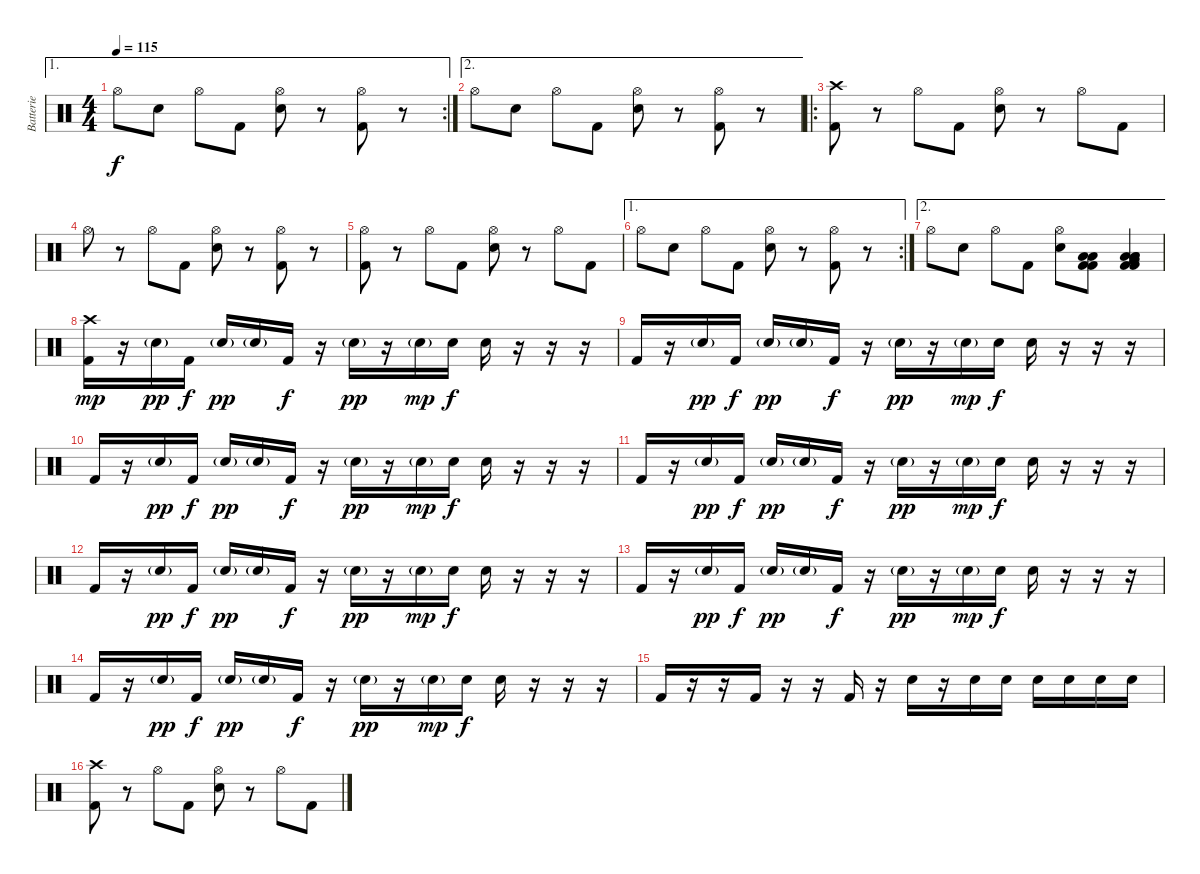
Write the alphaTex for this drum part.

\track ("Batterie" "Batterie") {instrument percussion}
\staff {score}
\articulation defaults
\ae 1
\rc 2
\ts (4 4)
\tempo 115
\clef neutral
\ks c "Hi-Hat (open)".8{dy f} "Electric Snare (hit)".8 "Hi-Hat (open)".8 "Kick (hit) 2".8
("Hi-Hat (open)" "Electric Snare (hit)").8 r.8 ("Hi-Hat (open)" "Kick (hit) 2").8 r.8 |
\ae 2 "Hi-Hat (open)".8 "Electric Snare (hit)".8 "Hi-Hat (open)".8 "Kick (hit) 2".8
("Hi-Hat (open)" "Electric Snare (hit)").8 r.8 ("Hi-Hat (open)" "Kick (hit) 2").8 r.8 |
\ro
("Crash high (hit)" "Kick (hit) 2").8 r.8 "Hi-Hat (open)".8 "Kick (hit) 2".8 ("Hi-Hat (open)" "Electric Snare (hit)").8 r.8 "Hi-Hat (open)".8 "Kick (hit) 2".8 |
"Hi-Hat (open)".8 r.8 "Hi-Hat (open)".8 "Kick (hit) 2".8 ("Hi-Hat (open)" "Electric Snare (hit)").8 r.8 ("Hi-Hat (open)" "Kick (hit) 2").8 r.8 |
("Hi-Hat (open)" "Kick (hit) 2").8 r.8 "Hi-Hat (open)".8 "Kick (hit) 2".8 ("Hi-Hat (open)" "Electric Snare (hit)").8 r.8 "Hi-Hat (open)".8 "Kick (hit) 2".8 |
\ae 1
\rc 2 "Hi-Hat (open)".8 "Electric Snare (hit)".8 "Hi-Hat (open)".8 "Kick (hit) 2".8
("Hi-Hat (open)" "Electric Snare (hit)").8 r.8 ("Hi-Hat (open)" "Kick (hit) 2").8 r.8 |
\ae 2 "Hi-Hat (open)".8 "Electric Snare (hit)".8 "Hi-Hat (open)".8 "Kick (hit) 2".8
("Hi-Hat (open)" "Electric Snare (hit)").8 ("Low Floor Tom (hit)" "Low Floor Tom (hit)" "Kick (hit) 2" "Kick (hit) 2").8 ("Very Low Tom (hit)" "Low Floor Tom (hit)" "Low Floor Tom (hit)" "Low Floor Tom (hit)" "Kick (hit) 2" "Kick (hit) 2").4 |
("Crash high (hit)" "Kick (hit) 2").16{dy mp} r.16 "Electric Snare (hit)"{g}.16{dy pp} "Kick (hit) 2".16{dy f} "Electric Snare (hit)"{g}.16{dy pp} "Electric Snare (hit)"{g}.16 "Kick (hit) 2".16{dy f} r.16 "Electric Snare (hit)"{g}.16{dy pp} r.16 "Electric Snare (hit)"{g}.16{dy mp} "Electric Snare (hit)".16{dy f} "Electric Snare (hit)".16 r.16 r.16 r.16 |
"Kick (hit) 2".16 r.16 "Electric Snare (hit)"{g}.16{dy pp} "Kick (hit) 2".16{dy f} "Electric Snare (hit)"{g}.16{dy pp} "Electric Snare (hit)"{g}.16 "Kick (hit) 2".16{dy f} r.16 "Electric Snare (hit)"{g}.16{dy pp} r.16 "Electric Snare (hit)"{g}.16{dy mp} "Electric Snare (hit)".16{dy f} "Electric Snare (hit)".16 r.16 r.16 r.16 |
"Kick (hit) 2".16 r.16 "Electric Snare (hit)"{g}.16{dy pp} "Kick (hit) 2".16{dy f} "Electric Snare (hit)"{g}.16{dy pp} "Electric Snare (hit)"{g}.16 "Kick (hit) 2".16{dy f} r.16 "Electric Snare (hit)"{g}.16{dy pp} r.16 "Electric Snare (hit)"{g}.16{dy mp} "Electric Snare (hit)".16{dy f} "Electric Snare (hit)".16 r.16 r.16 r.16 |
"Kick (hit) 2".16 r.16 "Electric Snare (hit)"{g}.16{dy pp} "Kick (hit) 2".16{dy f} "Electric Snare (hit)"{g}.16{dy pp} "Electric Snare (hit)"{g}.16 "Kick (hit) 2".16{dy f} r.16 "Electric Snare (hit)"{g}.16{dy pp} r.16 "Electric Snare (hit)"{g}.16{dy mp} "Electric Snare (hit)".16{dy f} "Electric Snare (hit)".16 r.16 r.16 r.16 |
"Kick (hit) 2".16 r.16 "Electric Snare (hit)"{g}.16{dy pp} "Kick (hit) 2".16{dy f} "Electric Snare (hit)"{g}.16{dy pp} "Electric Snare (hit)"{g}.16 "Kick (hit) 2".16{dy f} r.16 "Electric Snare (hit)"{g}.16{dy pp} r.16 "Electric Snare (hit)"{g}.16{dy mp} "Electric Snare (hit)".16{dy f} "Electric Snare (hit)".16 r.16 r.16 r.16 |
"Kick (hit) 2".16 r.16 "Electric Snare (hit)"{g}.16{dy pp} "Kick (hit) 2".16{dy f} "Electric Snare (hit)"{g}.16{dy pp} "Electric Snare (hit)"{g}.16 "Kick (hit) 2".16{dy f} r.16 "Electric Snare (hit)"{g}.16{dy pp} r.16 "Electric Snare (hit)"{g}.16{dy mp} "Electric Snare (hit)".16{dy f} "Electric Snare (hit)".16 r.16 r.16 r.16 |
"Kick (hit) 2".16 r.16 "Electric Snare (hit)"{g}.16{dy pp} "Kick (hit) 2".16{dy f} "Electric Snare (hit)"{g}.16{dy pp} "Electric Snare (hit)"{g}.16 "Kick (hit) 2".16{dy f} r.16 "Electric Snare (hit)"{g}.16{dy pp} r.16 "Electric Snare (hit)"{g}.16{dy mp} "Electric Snare (hit)".16{dy f} "Electric Snare (hit)".16 r.16 r.16 r.16 |
"Kick (hit) 2".16 r.16 r.16 "Kick (hit) 2".16 r.16 r.16 "Kick (hit) 2".16 r.16 "Electric Snare (hit)".16 r.16 "Electric Snare (hit)".16 "Electric Snare (hit)".16 "Electric Snare (hit)".16 "Electric Snare (hit)".16 "Electric Snare (hit)".16 "Electric Snare (hit)".16 |
("Crash high (hit)" "Kick (hit) 2").8 r.8 "Hi-Hat (open)".8 "Kick (hit) 2".8 ("Hi-Hat (open)" "Electric Snare (hit)").8 r.8 "Hi-Hat (open)".8 "Kick (hit) 2".8
